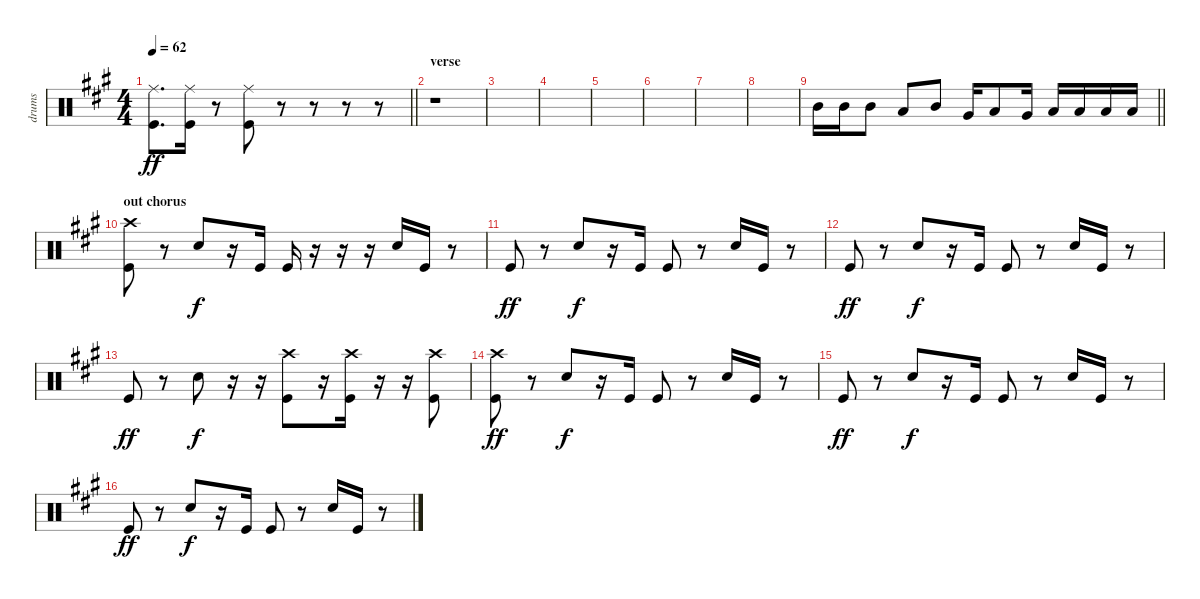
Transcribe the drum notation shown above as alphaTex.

\track ("drums" "drums") {instrument percussion}
\staff {score}
\articulation defaults
\ts (4 4)
\tempo 62
\clef neutral
\barLineRight lightlight
\ks a
("Ride (middle)" "Kick (hit)").8{d dy ff} ("Ride (middle)" "Kick (hit)").16 r.8 ("Ride (middle)" "Kick (hit)").8 r.8 r.8 r.8 r.8 |
\section ("" "verse")
r.1 |
|
|
|
|
|
|
\barLineRight lightlight "Mid Tom (hit)".16 "Mid Tom (hit)".16 "Mid Tom (hit)".8 "Low Tom (hit)".8 "Mid Tom (hit)".8 "Very Low Tom (hit)".16 "Low Tom (hit)".8 "Very Low Tom (hit)".16 "Low Tom (hit)".16 "Low Tom (hit)".16 "Low Floor Tom (hit)".16 "Low Floor Tom (hit)".16
|
\section ("" "out chorus")
("Crash high (hit)" "Kick (hit)").8 r.8 "Electric Snare (hit)".8{dy f} r.16 "Kick (hit)".16 "Kick (hit)".16 r.16 r.16 r.16 "Electric Snare (hit)".16 "Kick (hit)".16 r.8 |
"Kick (hit)".8{dy ff} r.8 "Electric Snare (hit)".8{dy f} r.16 "Kick (hit)".16 "Kick (hit)".8 r.8 "Electric Snare (hit)".16 "Kick (hit)".16 r.8 |
"Kick (hit)".8{dy ff} r.8 "Electric Snare (hit)".8{dy f} r.16 "Kick (hit)".16 "Kick (hit)".8 r.8 "Electric Snare (hit)".16 "Kick (hit)".16 r.8 |
"Kick (hit)".8{dy ff} r.8 "Electric Snare (hit)".8{dy f} r.16 r.16 ("Crash high (hit)" "Kick (hit)").8 r.16 ("Crash high (hit)" "Kick (hit)").16 r.16 r.16 ("Crash high (hit)" "Kick (hit)").8 |
("Crash high (hit)" "Kick (hit)").8{dy ff} r.8 "Electric Snare (hit)".8{dy f} r.16 "Kick (hit)".16 "Kick (hit)".8 r.8 "Electric Snare (hit)".16 "Kick (hit)".16 r.8 |
"Kick (hit)".8{dy ff} r.8 "Electric Snare (hit)".8{dy f} r.16 "Kick (hit)".16 "Kick (hit)".8 r.8 "Electric Snare (hit)".16 "Kick (hit)".16 r.8 |
"Kick (hit)".8{dy ff} r.8 "Electric Snare (hit)".8{dy f} r.16 "Kick (hit)".16 "Kick (hit)".8 r.8 "Electric Snare (hit)".16 "Kick (hit)".16 r.8
